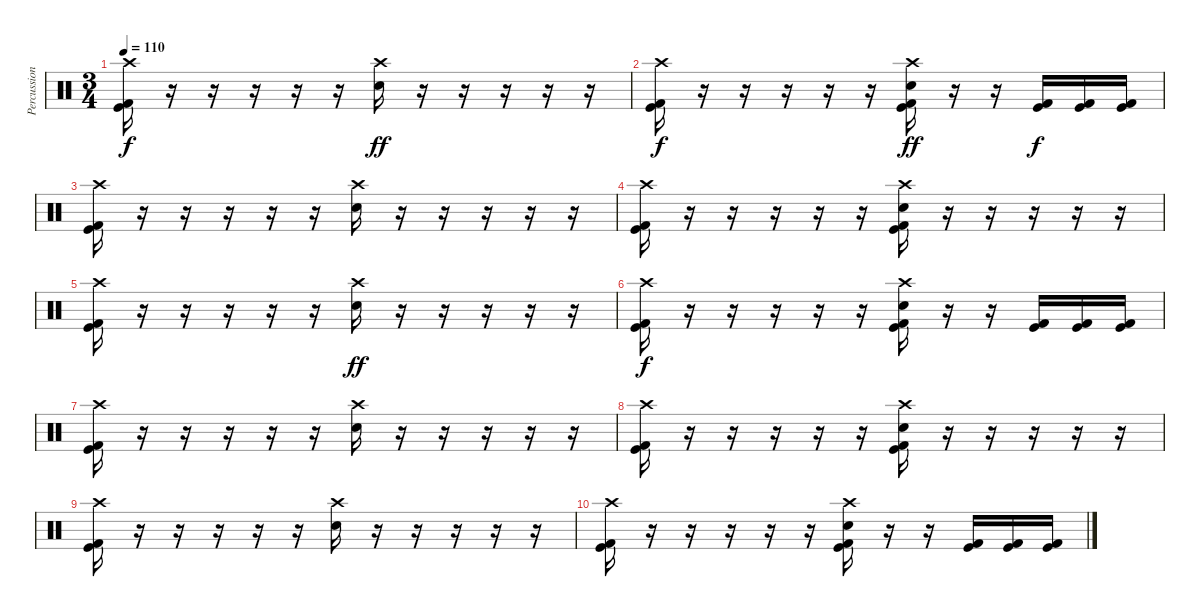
\track ("Percussion" "Percussion") {instrument percussion}
\staff {score}
\articulation defaults
\ts (3 4)
\tempo 110
\clef neutral
\ks c
("Crash high (hit)" "Kick (hit)" "Kick (hit) 2").16{dy f} r.16 r.16 r.16 r.16 r.16 ("Crash high (hit)" "Electric Snare (hit)").16{dy ff} r.16 r.16 r.16 r.16 r.16 |
("Crash high (hit)" "Kick (hit)" "Kick (hit) 2").16{dy f} r.16 r.16 r.16 r.16 r.16 ("Crash high (hit)" "Electric Snare (hit)" "Kick (hit)" "Kick (hit) 2").16{dy ff} r.16 r.16 ("Kick (hit)" "Kick (hit) 2").16{dy f} ("Kick (hit)" "Kick (hit) 2").16 ("Kick (hit)" "Kick (hit) 2").16 |
("Crash high (hit)" "Kick (hit)" "Kick (hit) 2").16 r.16 r.16 r.16 r.16 r.16 ("Crash high (hit)" "Electric Snare (hit)").16 r.16 r.16 r.16 r.16 r.16 |
("Crash high (hit)" "Kick (hit)" "Kick (hit) 2").16 r.16 r.16 r.16 r.16 r.16 ("Crash high (hit)" "Electric Snare (hit)" "Kick (hit)" "Kick (hit) 2").16 r.16 r.16 r.16 r.16 r.16 |
("Crash high (hit)" "Kick (hit)" "Kick (hit) 2").16 r.16 r.16 r.16 r.16 r.16 ("Crash high (hit)" "Electric Snare (hit)").16{dy ff} r.16 r.16 r.16 r.16 r.16 |
("Crash high (hit)" "Kick (hit)" "Kick (hit) 2").16{dy f} r.16 r.16 r.16 r.16 r.16 ("Crash high (hit)" "Electric Snare (hit)" "Kick (hit)" "Kick (hit) 2").16 r.16 r.16 ("Kick (hit)" "Kick (hit) 2").16 ("Kick (hit)" "Kick (hit) 2").16 ("Kick (hit)" "Kick (hit) 2").16 |
("Crash high (hit)" "Kick (hit)" "Kick (hit) 2").16 r.16 r.16 r.16 r.16 r.16 ("Crash high (hit)" "Electric Snare (hit)").16 r.16 r.16 r.16 r.16 r.16 |
("Crash high (hit)" "Kick (hit)" "Kick (hit) 2").16 r.16 r.16 r.16 r.16 r.16 ("Crash high (hit)" "Electric Snare (hit)" "Kick (hit)" "Kick (hit) 2").16 r.16 r.16 r.16 r.16 r.16 |
("Crash high (hit)" "Kick (hit)" "Kick (hit) 2").16 r.16 r.16 r.16 r.16 r.16 ("Crash high (hit)" "Electric Snare (hit)").16 r.16 r.16 r.16 r.16 r.16 |
("Crash high (hit)" "Kick (hit)" "Kick (hit) 2").16 r.16 r.16 r.16 r.16 r.16 ("Crash high (hit)" "Electric Snare (hit)" "Kick (hit)" "Kick (hit) 2").16 r.16 r.16 ("Kick (hit)" "Kick (hit) 2").16 ("Kick (hit)" "Kick (hit) 2").16 ("Kick (hit)" "Kick (hit) 2").16
